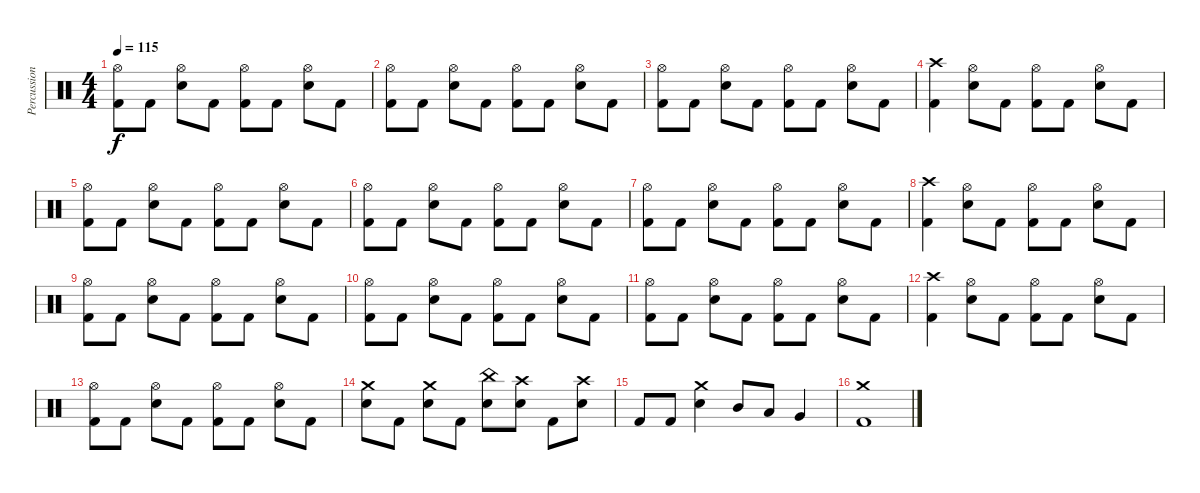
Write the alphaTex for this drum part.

\track ("Percussion" "Percussion") {instrument percussion}
\staff {score}
\articulation defaults
\ts (4 4)
\tempo 115
\clef neutral
\ks c
("Hi-Hat (open)" "Kick (hit) 2").8{dy f} "Kick (hit) 2".8 ("Hi-Hat (open)" "Electric Snare (hit)").8 "Kick (hit) 2".8 ("Hi-Hat (open)" "Kick (hit) 2").8 "Kick (hit) 2".8 ("Hi-Hat (open)" "Electric Snare (hit)").8 "Kick (hit) 2".8 |
("Hi-Hat (open)" "Kick (hit) 2").8 "Kick (hit) 2".8 ("Hi-Hat (open)" "Electric Snare (hit)").8 "Kick (hit) 2".8 ("Hi-Hat (open)" "Kick (hit) 2").8 "Kick (hit) 2".8 ("Hi-Hat (open)" "Electric Snare (hit)").8 "Kick (hit) 2".8 |
("Hi-Hat (open)" "Kick (hit) 2").8 "Kick (hit) 2".8 ("Hi-Hat (open)" "Electric Snare (hit)").8 "Kick (hit) 2".8 ("Hi-Hat (open)" "Kick (hit) 2").8 "Kick (hit) 2".8 ("Hi-Hat (open)" "Electric Snare (hit)").8 "Kick (hit) 2".8 |
("Crash high (hit)" "Kick (hit) 2").4 ("Hi-Hat (open)" "Electric Snare (hit)").8 "Kick (hit) 2".8 ("Hi-Hat (open)" "Kick (hit) 2").8 "Kick (hit) 2".8 ("Hi-Hat (open)" "Electric Snare (hit)").8 "Kick (hit) 2".8 |
("Hi-Hat (open)" "Kick (hit) 2").8 "Kick (hit) 2".8 ("Hi-Hat (open)" "Electric Snare (hit)").8 "Kick (hit) 2".8 ("Hi-Hat (open)" "Kick (hit) 2").8 "Kick (hit) 2".8 ("Hi-Hat (open)" "Electric Snare (hit)").8 "Kick (hit) 2".8 |
("Hi-Hat (open)" "Kick (hit) 2").8 "Kick (hit) 2".8 ("Hi-Hat (open)" "Electric Snare (hit)").8 "Kick (hit) 2".8 ("Hi-Hat (open)" "Kick (hit) 2").8 "Kick (hit) 2".8 ("Hi-Hat (open)" "Electric Snare (hit)").8 "Kick (hit) 2".8 |
("Hi-Hat (open)" "Kick (hit) 2").8 "Kick (hit) 2".8 ("Hi-Hat (open)" "Electric Snare (hit)").8 "Kick (hit) 2".8 ("Hi-Hat (open)" "Kick (hit) 2").8 "Kick (hit) 2".8 ("Hi-Hat (open)" "Electric Snare (hit)").8 "Kick (hit) 2".8 |
("Crash high (hit)" "Kick (hit) 2").4 ("Hi-Hat (open)" "Electric Snare (hit)").8 "Kick (hit) 2".8 ("Hi-Hat (open)" "Kick (hit) 2").8 "Kick (hit) 2".8 ("Hi-Hat (open)" "Electric Snare (hit)").8 "Kick (hit) 2".8 |
("Hi-Hat (open)" "Kick (hit) 2").8 "Kick (hit) 2".8 ("Hi-Hat (open)" "Electric Snare (hit)").8 "Kick (hit) 2".8 ("Hi-Hat (open)" "Kick (hit) 2").8 "Kick (hit) 2".8 ("Hi-Hat (open)" "Electric Snare (hit)").8 "Kick (hit) 2".8 |
("Hi-Hat (open)" "Kick (hit) 2").8 "Kick (hit) 2".8 ("Hi-Hat (open)" "Electric Snare (hit)").8 "Kick (hit) 2".8 ("Hi-Hat (open)" "Kick (hit) 2").8 "Kick (hit) 2".8 ("Hi-Hat (open)" "Electric Snare (hit)").8 "Kick (hit) 2".8 |
("Hi-Hat (open)" "Kick (hit) 2").8 "Kick (hit) 2".8 ("Hi-Hat (open)" "Electric Snare (hit)").8 "Kick (hit) 2".8 ("Hi-Hat (open)" "Kick (hit) 2").8 "Kick (hit) 2".8 ("Hi-Hat (open)" "Electric Snare (hit)").8 "Kick (hit) 2".8 |
("Crash high (hit)" "Kick (hit) 2").4 ("Hi-Hat (open)" "Electric Snare (hit)").8 "Kick (hit) 2".8 ("Hi-Hat (open)" "Kick (hit) 2").8 "Kick (hit) 2".8 ("Hi-Hat (open)" "Electric Snare (hit)").8 "Kick (hit) 2".8 |
("Hi-Hat (open)" "Kick (hit) 2").8 "Kick (hit) 2".8 ("Hi-Hat (open)" "Electric Snare (hit)").8 "Kick (hit) 2".8 ("Hi-Hat (open)" "Kick (hit) 2").8 "Kick (hit) 2".8 ("Hi-Hat (open)" "Electric Snare (hit)").8 "Kick (hit) 2".8 |
("Crash medium (hit)" "Electric Snare (hit)").8 "Kick (hit) 2".8 ("Crash medium (hit)" "Electric Snare (hit)").8 "Kick (hit) 2".8 ("China (hit)" "Electric Snare (hit)").8 ("Crash high (hit)" "Electric Snare (hit)").8 "Kick (hit) 2".8 ("Crash high (hit)" "Electric Snare (hit)").8 |
"Kick (hit) 2".8 "Kick (hit) 2".8 ("Crash medium (hit)" "Electric Snare (hit)").4 "Mid Tom (hit)".8 "Low Tom (hit)".8 "Very Low Tom (hit)".4 |
("Crash medium (hit)" "Kick (hit) 2").1
